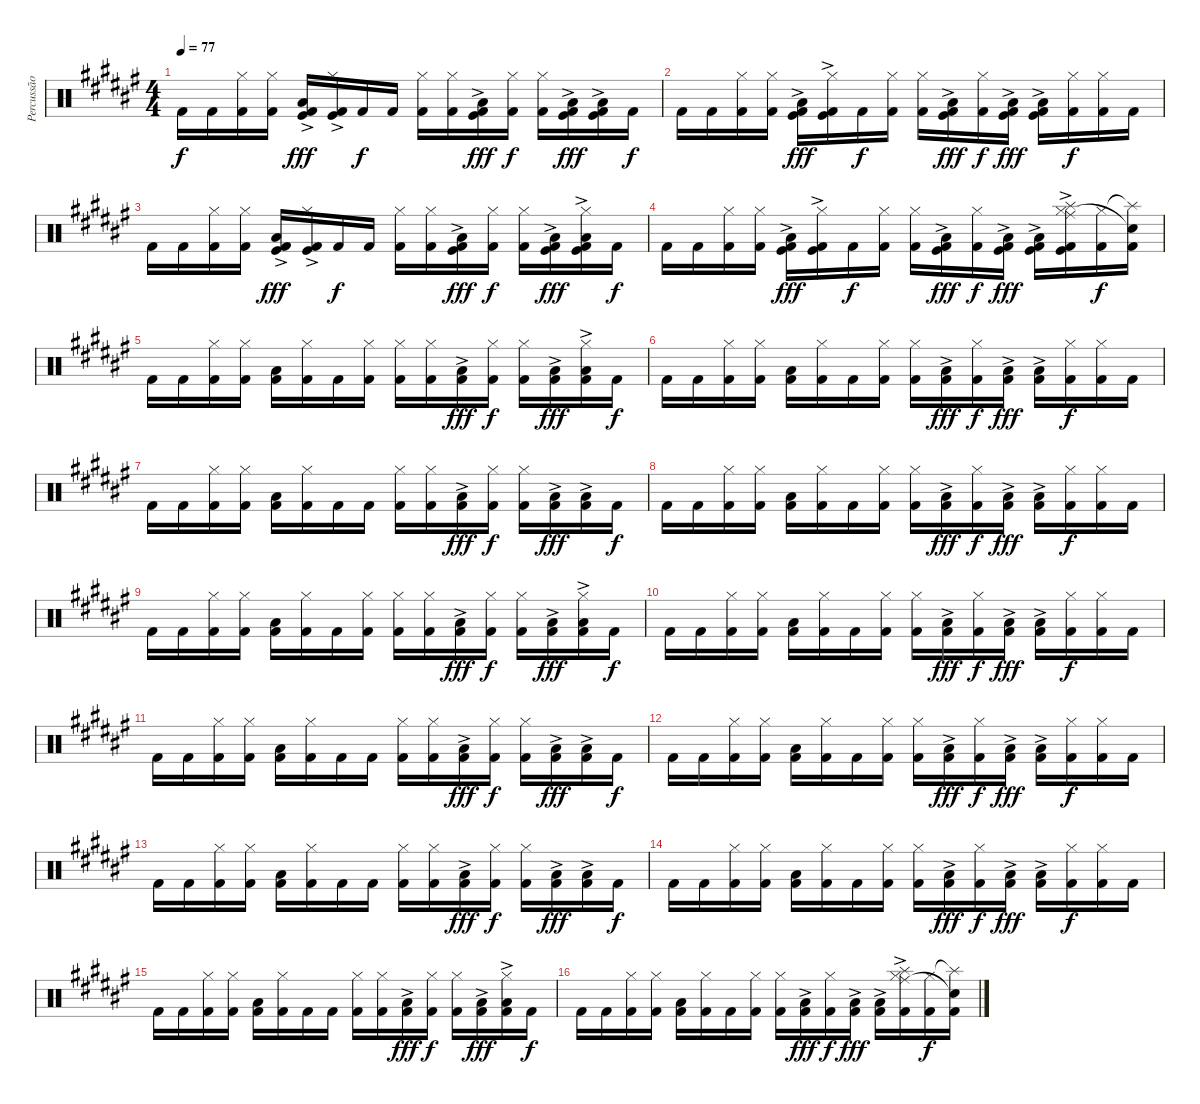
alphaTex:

\track ("Percussão" "Percussão") {instrument percussion}
\staff {score}
\articulation defaults
\ts (4 4)
\tempo 77
\clef neutral
\ks d#minor "Kick (hit) 2".16{dy f} "Kick (hit) 2".16
("Kick (hit) 2" "Hi-Hat (closed)").16 ("Kick (hit) 2" "Hi-Hat (closed)").16 ("Kick (hit)"{ac} "Kick (hit) 2" "Low Floor Tom (hit)").16{dy fff} ("Kick (hit)"{ac} "Kick (hit) 2" "Hi-Hat (closed)").16 "Kick (hit) 2".16{dy f} "Kick (hit) 2".16 ("Kick (hit) 2" "Hi-Hat (closed)").16 ("Kick (hit) 2" "Hi-Hat (closed)").16 ("Kick (hit)" "Kick (hit) 2"{ac} "Low Floor Tom (hit)").16{dy fff} ("Kick (hit) 2" "Hi-Hat (closed)").16{dy f} ("Kick (hit) 2" "Hi-Hat (closed)").16 ("Kick (hit)" "Kick (hit) 2"{ac} "Low Floor Tom (hit)").16{dy fff} ("Kick (hit)" "Kick (hit) 2"{ac} "Low Floor Tom (hit)").16 "Kick (hit) 2".16{dy f} |
"Kick (hit) 2".16 "Kick (hit) 2".16 ("Kick (hit) 2" "Hi-Hat (closed)").16 ("Kick (hit) 2" "Hi-Hat (closed)").16 ("Kick (hit)"{ac} "Kick (hit) 2" "Low Floor Tom (hit)").16{dy fff} ("Kick (hit)"{ac} "Kick (hit) 2" "Hi-Hat (closed)").16 "Kick (hit) 2".16{dy f} ("Kick (hit) 2" "Hi-Hat (closed)").16 ("Kick (hit) 2" "Hi-Hat (closed)").16 ("Kick (hit)" "Kick (hit) 2"{ac} "Low Floor Tom (hit)").16{dy fff} ("Kick (hit) 2" "Hi-Hat (closed)").16{dy f} ("Kick (hit)" "Kick (hit) 2"{ac} "Low Floor Tom (hit)").16{dy fff} ("Kick (hit)" "Kick (hit) 2"{ac} "Low Floor Tom (hit)").16 ("Kick (hit) 2" "Hi-Hat (closed)").16{dy f} ("Kick (hit) 2" "Hi-Hat (closed)").16 "Kick (hit) 2".16 |
"Kick (hit) 2".16 "Kick (hit) 2".16 ("Kick (hit) 2" "Hi-Hat (closed)").16 ("Kick (hit) 2" "Hi-Hat (closed)").16 ("Kick (hit)"{ac} "Kick (hit) 2" "Low Floor Tom (hit)").16{dy fff} ("Kick (hit)"{ac} "Kick (hit) 2" "Hi-Hat (closed)").16 "Kick (hit) 2".16{dy f} "Kick (hit) 2".16 ("Kick (hit) 2" "Hi-Hat (closed)").16 ("Kick (hit) 2" "Hi-Hat (closed)").16 ("Kick (hit)" "Kick (hit) 2"{ac} "Low Floor Tom (hit)").16{dy fff} ("Kick (hit) 2" "Hi-Hat (closed)").16{dy f} ("Kick (hit) 2" "Hi-Hat (closed)").16 ("Kick (hit)" "Kick (hit) 2"{ac} "Low Floor Tom (hit)").16{dy fff} ("Kick (hit)" "Kick (hit) 2"{ac} "Hi-Hat (closed)" "Low Floor Tom (hit)").16 "Kick (hit) 2".16{dy f} |
"Kick (hit) 2".16 "Kick (hit) 2".16 ("Kick (hit) 2" "Hi-Hat (closed)").16 ("Kick (hit) 2" "Hi-Hat (closed)").16 ("Kick (hit)"{ac} "Kick (hit) 2" "Low Floor Tom (hit)").16{dy fff} ("Kick (hit)"{ac} "Kick (hit) 2" "Hi-Hat (closed)").16 "Kick (hit) 2".16{dy f} ("Kick (hit) 2" "Hi-Hat (closed)").16 ("Kick (hit) 2" "Hi-Hat (closed)").16 ("Kick (hit)" "Kick (hit) 2"{ac} "Low Floor Tom (hit)").16{dy fff} ("Kick (hit) 2" "Hi-Hat (closed)").16{dy f} ("Kick (hit)" "Kick (hit) 2"{ac} "Low Floor Tom (hit)").16{dy fff} ("Kick (hit)" "Kick (hit) 2"{ac} "Low Floor Tom (hit)").16 ("Kick (hit)" "Kick (hit) 2"{ac} "Hi-Hat (closed)" "Ride (middle)" "Splash (hit)").16 ("Kick (hit) 2" "Hi-Hat (closed)").16{dy f} ("Kick (hit) 2" "Splash (hit)"{t} "Snare (hit)"{t}).16 |
"Kick (hit) 2".16 "Kick (hit) 2".16 ("Kick (hit) 2" "Hi-Hat (closed)").16 ("Kick (hit) 2" "Hi-Hat (closed)").16 ("Kick (hit) 2" "Low Floor Tom (hit)").16 ("Kick (hit) 2" "Hi-Hat (closed)").16 "Kick (hit) 2".16 ("Kick (hit) 2" "Hi-Hat (closed)").16 ("Kick (hit) 2" "Hi-Hat (closed)").16 ("Kick (hit) 2" "Hi-Hat (closed)").16 ("Kick (hit) 2"{ac} "Low Floor Tom (hit)").16{dy fff} ("Kick (hit) 2" "Hi-Hat (closed)").16{dy f} ("Kick (hit) 2" "Hi-Hat (closed)").16 ("Kick (hit) 2"{ac} "Low Floor Tom (hit)").16{dy fff} ("Kick (hit) 2"{ac} "Hi-Hat (closed)" "Low Floor Tom (hit)").16 "Kick (hit) 2".16{dy f} |
"Kick (hit) 2".16 "Kick (hit) 2".16 ("Kick (hit) 2" "Hi-Hat (closed)").16 ("Kick (hit) 2" "Hi-Hat (closed)").16 ("Kick (hit) 2" "Low Floor Tom (hit)").16 ("Kick (hit) 2" "Hi-Hat (closed)").16 "Kick (hit) 2".16 ("Kick (hit) 2" "Hi-Hat (closed)").16 ("Kick (hit) 2" "Hi-Hat (closed)").16 ("Kick (hit) 2"{ac} "Low Floor Tom (hit)").16{dy fff} ("Kick (hit) 2" "Hi-Hat (closed)").16{dy f} ("Kick (hit) 2"{ac} "Low Floor Tom (hit)").16{dy fff} ("Kick (hit) 2"{ac} "Low Floor Tom (hit)").16 ("Kick (hit) 2" "Hi-Hat (closed)").16{dy f} ("Kick (hit) 2" "Hi-Hat (closed)").16 "Kick (hit) 2".16 |
"Kick (hit) 2".16 "Kick (hit) 2".16 ("Kick (hit) 2" "Hi-Hat (closed)").16 ("Kick (hit) 2" "Hi-Hat (closed)").16 ("Kick (hit) 2" "Low Floor Tom (hit)").16 ("Kick (hit) 2" "Hi-Hat (closed)").16 "Kick (hit) 2".16 "Kick (hit) 2".16 ("Kick (hit) 2" "Hi-Hat (closed)").16 ("Kick (hit) 2" "Hi-Hat (closed)").16 ("Kick (hit) 2"{ac} "Low Floor Tom (hit)").16{dy fff} ("Kick (hit) 2" "Hi-Hat (closed)").16{dy f} ("Kick (hit) 2" "Hi-Hat (closed)").16 ("Kick (hit) 2"{ac} "Low Floor Tom (hit)").16{dy fff} ("Kick (hit) 2"{ac} "Low Floor Tom (hit)").16 "Kick (hit) 2".16{dy f} |
"Kick (hit) 2".16 "Kick (hit) 2".16 ("Kick (hit) 2" "Hi-Hat (closed)").16 ("Kick (hit) 2" "Hi-Hat (closed)").16 ("Kick (hit) 2" "Low Floor Tom (hit)").16 ("Kick (hit) 2" "Hi-Hat (closed)").16 "Kick (hit) 2".16 ("Kick (hit) 2" "Hi-Hat (closed)").16 ("Kick (hit) 2" "Hi-Hat (closed)").16 ("Kick (hit) 2"{ac} "Low Floor Tom (hit)").16{dy fff} ("Kick (hit) 2" "Hi-Hat (closed)").16{dy f} ("Kick (hit) 2"{ac} "Low Floor Tom (hit)").16{dy fff} ("Kick (hit) 2"{ac} "Low Floor Tom (hit)").16 ("Kick (hit) 2" "Hi-Hat (closed)").16{dy f} ("Kick (hit) 2" "Hi-Hat (closed)").16 "Kick (hit) 2".16 |
"Kick (hit) 2".16 "Kick (hit) 2".16 ("Kick (hit) 2" "Hi-Hat (closed)").16 ("Kick (hit) 2" "Hi-Hat (closed)").16 ("Kick (hit) 2" "Low Floor Tom (hit)").16 ("Kick (hit) 2" "Hi-Hat (closed)").16 "Kick (hit) 2".16 ("Kick (hit) 2" "Hi-Hat (closed)").16 ("Kick (hit) 2" "Hi-Hat (closed)").16 ("Kick (hit) 2" "Hi-Hat (closed)").16 ("Kick (hit) 2"{ac} "Low Floor Tom (hit)").16{dy fff} ("Kick (hit) 2" "Hi-Hat (closed)").16{dy f} ("Kick (hit) 2" "Hi-Hat (closed)").16 ("Kick (hit) 2"{ac} "Low Floor Tom (hit)").16{dy fff} ("Kick (hit) 2"{ac} "Hi-Hat (closed)" "Low Floor Tom (hit)").16 "Kick (hit) 2".16{dy f} |
"Kick (hit) 2".16 "Kick (hit) 2".16 ("Kick (hit) 2" "Hi-Hat (closed)").16 ("Kick (hit) 2" "Hi-Hat (closed)").16 ("Kick (hit) 2" "Low Floor Tom (hit)").16 ("Kick (hit) 2" "Hi-Hat (closed)").16 "Kick (hit) 2".16 ("Kick (hit) 2" "Hi-Hat (closed)").16 ("Kick (hit) 2" "Hi-Hat (closed)").16 ("Kick (hit) 2"{ac} "Low Floor Tom (hit)").16{dy fff} ("Kick (hit) 2" "Hi-Hat (closed)").16{dy f} ("Kick (hit) 2"{ac} "Low Floor Tom (hit)").16{dy fff} ("Kick (hit) 2"{ac} "Low Floor Tom (hit)").16 ("Kick (hit) 2" "Hi-Hat (closed)").16{dy f} ("Kick (hit) 2" "Hi-Hat (closed)").16 "Kick (hit) 2".16 |
"Kick (hit) 2".16 "Kick (hit) 2".16 ("Kick (hit) 2" "Hi-Hat (closed)").16 ("Kick (hit) 2" "Hi-Hat (closed)").16 ("Kick (hit) 2" "Low Floor Tom (hit)").16 ("Kick (hit) 2" "Hi-Hat (closed)").16 "Kick (hit) 2".16 "Kick (hit) 2".16 ("Kick (hit) 2" "Hi-Hat (closed)").16 ("Kick (hit) 2" "Hi-Hat (closed)").16 ("Kick (hit) 2"{ac} "Low Floor Tom (hit)").16{dy fff} ("Kick (hit) 2" "Hi-Hat (closed)").16{dy f} ("Kick (hit) 2" "Hi-Hat (closed)").16 ("Kick (hit) 2"{ac} "Low Floor Tom (hit)").16{dy fff} ("Kick (hit) 2"{ac} "Low Floor Tom (hit)").16 "Kick (hit) 2".16{dy f} |
"Kick (hit) 2".16 "Kick (hit) 2".16 ("Kick (hit) 2" "Hi-Hat (closed)").16 ("Kick (hit) 2" "Hi-Hat (closed)").16 ("Kick (hit) 2" "Low Floor Tom (hit)").16 ("Kick (hit) 2" "Hi-Hat (closed)").16 "Kick (hit) 2".16 ("Kick (hit) 2" "Hi-Hat (closed)").16 ("Kick (hit) 2" "Hi-Hat (closed)").16 ("Kick (hit) 2"{ac} "Low Floor Tom (hit)").16{dy fff} ("Kick (hit) 2" "Hi-Hat (closed)").16{dy f} ("Kick (hit) 2"{ac} "Low Floor Tom (hit)").16{dy fff} ("Kick (hit) 2"{ac} "Low Floor Tom (hit)").16 ("Kick (hit) 2" "Hi-Hat (closed)").16{dy f} ("Kick (hit) 2" "Hi-Hat (closed)").16 "Kick (hit) 2".16 |
"Kick (hit) 2".16 "Kick (hit) 2".16 ("Kick (hit) 2" "Hi-Hat (closed)").16 ("Kick (hit) 2" "Hi-Hat (closed)").16 ("Kick (hit) 2" "Low Floor Tom (hit)").16 ("Kick (hit) 2" "Hi-Hat (closed)").16 "Kick (hit) 2".16 "Kick (hit) 2".16 ("Kick (hit) 2" "Hi-Hat (closed)").16 ("Kick (hit) 2" "Hi-Hat (closed)").16 ("Kick (hit) 2"{ac} "Low Floor Tom (hit)").16{dy fff} ("Kick (hit) 2" "Hi-Hat (closed)").16{dy f} ("Kick (hit) 2" "Hi-Hat (closed)").16 ("Kick (hit) 2"{ac} "Low Floor Tom (hit)").16{dy fff} ("Kick (hit) 2"{ac} "Low Floor Tom (hit)").16 "Kick (hit) 2".16{dy f} |
"Kick (hit) 2".16 "Kick (hit) 2".16 ("Kick (hit) 2" "Hi-Hat (closed)").16 ("Kick (hit) 2" "Hi-Hat (closed)").16 ("Kick (hit) 2" "Low Floor Tom (hit)").16 ("Kick (hit) 2" "Hi-Hat (closed)").16 "Kick (hit) 2".16 ("Kick (hit) 2" "Hi-Hat (closed)").16 ("Kick (hit) 2" "Hi-Hat (closed)").16 ("Kick (hit) 2"{ac} "Low Floor Tom (hit)").16{dy fff} ("Kick (hit) 2" "Hi-Hat (closed)").16{dy f} ("Kick (hit) 2"{ac} "Low Floor Tom (hit)").16{dy fff} ("Kick (hit) 2"{ac} "Low Floor Tom (hit)").16 ("Kick (hit) 2" "Hi-Hat (closed)").16{dy f} ("Kick (hit) 2" "Hi-Hat (closed)").16 "Kick (hit) 2".16 |
"Kick (hit) 2".16 "Kick (hit) 2".16 ("Kick (hit) 2" "Hi-Hat (closed)").16 ("Kick (hit) 2" "Hi-Hat (closed)").16 ("Kick (hit) 2" "Low Floor Tom (hit)").16 ("Kick (hit) 2" "Hi-Hat (closed)").16 "Kick (hit) 2".16 "Kick (hit) 2".16 ("Kick (hit) 2" "Hi-Hat (closed)").16 ("Kick (hit) 2" "Hi-Hat (closed)").16 ("Kick (hit) 2"{ac} "Low Floor Tom (hit)").16{dy fff} ("Kick (hit) 2" "Hi-Hat (closed)").16{dy f} ("Kick (hit) 2" "Hi-Hat (closed)").16 ("Kick (hit) 2"{ac} "Low Floor Tom (hit)").16{dy fff} ("Kick (hit) 2"{ac} "Hi-Hat (closed)" "Low Floor Tom (hit)").16 "Kick (hit) 2".16{dy f} |
"Kick (hit) 2".16 "Kick (hit) 2".16 ("Kick (hit) 2" "Hi-Hat (closed)").16 ("Kick (hit) 2" "Hi-Hat (closed)").16 ("Kick (hit) 2" "Low Floor Tom (hit)").16 ("Kick (hit) 2" "Hi-Hat (closed)").16 "Kick (hit) 2".16 ("Kick (hit) 2" "Hi-Hat (closed)").16 ("Kick (hit) 2" "Hi-Hat (closed)").16 ("Kick (hit) 2"{ac} "Low Floor Tom (hit)").16{dy fff} ("Kick (hit) 2" "Hi-Hat (closed)").16{dy f} ("Kick (hit) 2"{ac} "Low Floor Tom (hit)").16{dy fff} ("Kick (hit) 2"{ac} "Low Floor Tom (hit)").16 ("Kick (hit) 2"{ac} "Hi-Hat (closed)" "Ride (middle)" "Splash (hit)").16 ("Kick (hit) 2" "Hi-Hat (closed)").16{dy f} ("Kick (hit) 2" "Splash (hit)"{t} "Snare (hit)"{t}).16
